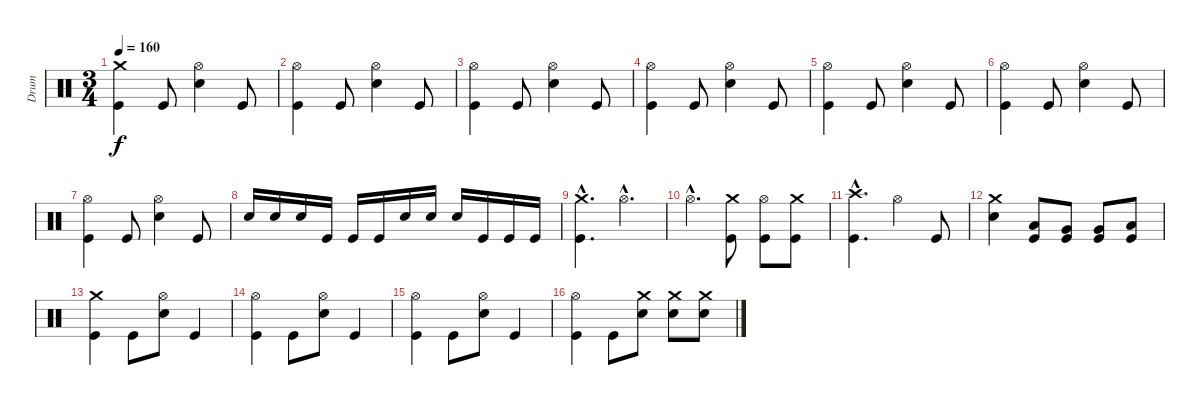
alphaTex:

\track ("Drum" "Drum") {instrument percussion}
\staff {score}
\articulation defaults
\ts (3 4)
\tempo 160
\clef neutral
\ks c
("Kick (hit)" "Crash medium (hit)").4{dy f} "Kick (hit)".8 ("Electric Snare (hit)" "Hi-Hat (open)").4 "Kick (hit)".8 |
("Kick (hit)" "Hi-Hat (open)").4 "Kick (hit)".8 ("Electric Snare (hit)" "Hi-Hat (open)").4 "Kick (hit)".8 |
("Kick (hit)" "Hi-Hat (open)").4 "Kick (hit)".8 ("Electric Snare (hit)" "Hi-Hat (open)").4 "Kick (hit)".8 |
("Kick (hit)" "Hi-Hat (open)").4 "Kick (hit)".8 ("Electric Snare (hit)" "Hi-Hat (open)").4 "Kick (hit)".8 |
("Kick (hit)" "Hi-Hat (open)").4 "Kick (hit)".8 ("Electric Snare (hit)" "Hi-Hat (open)").4 "Kick (hit)".8 |
("Kick (hit)" "Hi-Hat (open)").4 "Kick (hit)".8 ("Electric Snare (hit)" "Hi-Hat (open)").4 "Kick (hit)".8 |
("Kick (hit)" "Hi-Hat (open)").4 "Kick (hit)".8 ("Electric Snare (hit)" "Hi-Hat (open)").4 "Kick (hit)".8 |
"Electric Snare (hit)".16 "Electric Snare (hit)".16 "Electric Snare (hit)".16 "Kick (hit)".16 "Kick (hit)".16 "Kick (hit)".16 "Electric Snare (hit)".16 "Electric Snare (hit)".16 "Electric Snare (hit)".16 "Kick (hit)".16 "Kick (hit)".16 "Kick (hit)".16 |
("Kick (hit)"{hac} "Crash medium (hit)"{hac}).4{d} "Hi-Hat (open)"{hac}.4{d} |
"Hi-Hat (open)"{hac}.4{d} ("Kick (hit)" "Crash medium (hit)").8 ("Kick (hit)" "Hi-Hat (open)").8 ("Kick (hit)" "Crash medium (hit)").8 |
("Kick (hit)"{hac} "Crash high (hit)"{hac}).4{d} "Hi-Hat (open)".4 "Kick (hit)".8 |
("Electric Snare (hit)" "Crash medium (hit)").4 ("Kick (hit)" "Low Tom (hit)").8 ("Kick (hit)" "Very Low Tom (hit)").8 ("Kick (hit)" "Very Low Tom (hit)").8 ("Kick (hit)" "Low Floor Tom (hit)").8 |
("Kick (hit)" "Crash medium (hit)").4 "Kick (hit)".8 ("Electric Snare (hit)" "Hi-Hat (open)").8 "Kick (hit)".4 |
("Kick (hit)" "Hi-Hat (open)").4 "Kick (hit)".8 ("Electric Snare (hit)" "Hi-Hat (open)").8 "Kick (hit)".4 |
("Kick (hit)" "Hi-Hat (open)").4 "Kick (hit)".8 ("Electric Snare (hit)" "Hi-Hat (open)").8 "Kick (hit)".4 |
("Kick (hit)" "Hi-Hat (open)").4 "Kick (hit)".8 ("Electric Snare (hit)" "Crash medium (hit)").8 ("Electric Snare (hit)" "Crash medium (hit)").8 ("Electric Snare (hit)" "Crash medium (hit)").8
